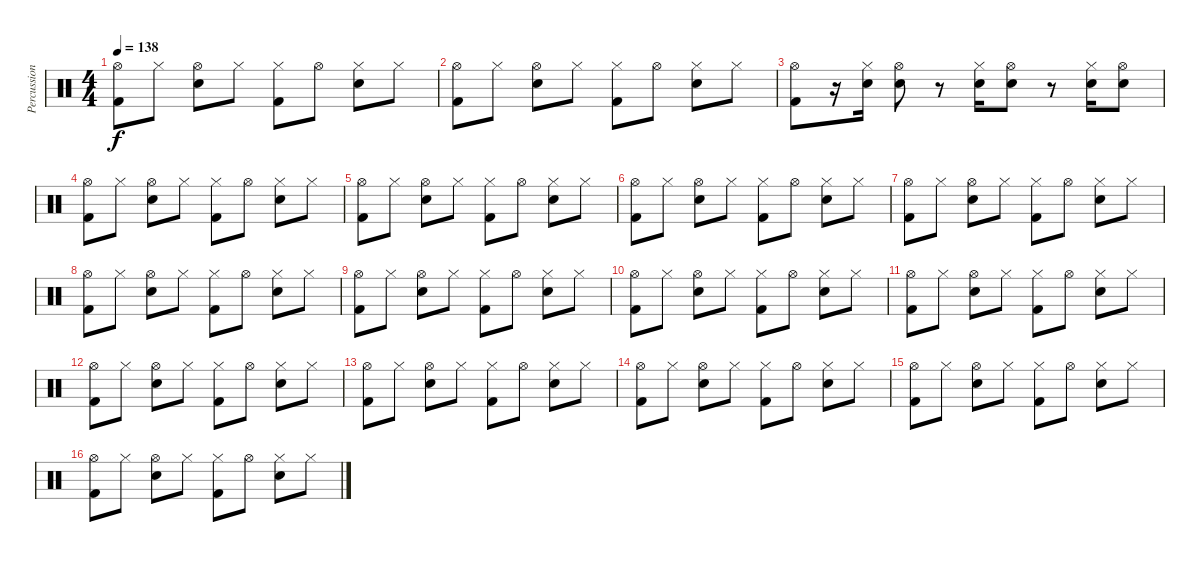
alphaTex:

\track ("Percussions" "Percussion") {instrument percussion}
\staff {score}
\articulation defaults
\ts (4 4)
\tempo 138
\clef neutral
\ks c
("Hi-Hat (open)" "Kick (hit) 2").8{dy f} "Hi-Hat (closed)".8 ("Hi-Hat (open)" "Snare (hit) 2").8 "Hi-Hat (closed)".8 ("Hi-Hat (closed)" "Kick (hit) 2").8 "Hi-Hat (open)".8 ("Hi-Hat (closed)" "Snare (hit) 2").8 "Hi-Hat (closed)".8 |
("Hi-Hat (open)" "Kick (hit) 2").8 "Hi-Hat (closed)".8 ("Hi-Hat (open)" "Snare (hit) 2").8 "Hi-Hat (closed)".8 ("Hi-Hat (closed)" "Kick (hit) 2").8 "Hi-Hat (open)".8 ("Hi-Hat (closed)" "Snare (hit) 2").8 "Hi-Hat (closed)".8 |
("Hi-Hat (open)" "Kick (hit) 2").8 r.16 ("Hi-Hat (closed)" "Snare (hit) 2").16 ("Hi-Hat (open)" "Snare (hit) 2").8 r.8 ("Hi-Hat (closed)" "Snare (hit) 2").16 ("Hi-Hat (open)" "Snare (hit) 2").8 r.8 ("Hi-Hat (closed)" "Snare (hit) 2").16 ("Hi-Hat (open)" "Snare (hit) 2").8 |
("Hi-Hat (open)" "Kick (hit) 2").8 "Hi-Hat (closed)".8 ("Hi-Hat (open)" "Snare (hit) 2").8 "Hi-Hat (closed)".8 ("Hi-Hat (closed)" "Kick (hit) 2").8 "Hi-Hat (open)".8 ("Hi-Hat (closed)" "Snare (hit) 2").8 "Hi-Hat (closed)".8 |
("Hi-Hat (open)" "Kick (hit) 2").8 "Hi-Hat (closed)".8 ("Hi-Hat (open)" "Snare (hit) 2").8 "Hi-Hat (closed)".8 ("Hi-Hat (closed)" "Kick (hit) 2").8 "Hi-Hat (open)".8 ("Hi-Hat (closed)" "Snare (hit) 2").8 "Hi-Hat (closed)".8 |
("Hi-Hat (open)" "Kick (hit) 2").8 "Hi-Hat (closed)".8 ("Hi-Hat (open)" "Snare (hit) 2").8 "Hi-Hat (closed)".8 ("Hi-Hat (closed)" "Kick (hit) 2").8 "Hi-Hat (open)".8 ("Hi-Hat (closed)" "Snare (hit) 2").8 "Hi-Hat (closed)".8 |
("Hi-Hat (open)" "Kick (hit) 2").8 "Hi-Hat (closed)".8 ("Hi-Hat (open)" "Snare (hit) 2").8 "Hi-Hat (closed)".8 ("Hi-Hat (closed)" "Kick (hit) 2").8 "Hi-Hat (open)".8 ("Hi-Hat (closed)" "Snare (hit) 2").8 "Hi-Hat (closed)".8 |
("Hi-Hat (open)" "Kick (hit) 2").8 "Hi-Hat (closed)".8 ("Hi-Hat (open)" "Snare (hit) 2").8 "Hi-Hat (closed)".8 ("Hi-Hat (closed)" "Kick (hit) 2").8 "Hi-Hat (open)".8 ("Hi-Hat (closed)" "Snare (hit) 2").8 "Hi-Hat (closed)".8 |
("Hi-Hat (open)" "Kick (hit) 2").8 "Hi-Hat (closed)".8 ("Hi-Hat (open)" "Snare (hit) 2").8 "Hi-Hat (closed)".8 ("Hi-Hat (closed)" "Kick (hit) 2").8 "Hi-Hat (open)".8 ("Hi-Hat (closed)" "Snare (hit) 2").8 "Hi-Hat (closed)".8 |
("Hi-Hat (open)" "Kick (hit) 2").8 "Hi-Hat (closed)".8 ("Hi-Hat (open)" "Snare (hit) 2").8 "Hi-Hat (closed)".8 ("Hi-Hat (closed)" "Kick (hit) 2").8 "Hi-Hat (open)".8 ("Hi-Hat (closed)" "Snare (hit) 2").8 "Hi-Hat (closed)".8 |
("Hi-Hat (open)" "Kick (hit) 2").8 "Hi-Hat (closed)".8 ("Hi-Hat (open)" "Snare (hit) 2").8 "Hi-Hat (closed)".8 ("Hi-Hat (closed)" "Kick (hit) 2").8 "Hi-Hat (open)".8 ("Hi-Hat (closed)" "Snare (hit) 2").8 "Hi-Hat (closed)".8 |
("Hi-Hat (open)" "Kick (hit) 2").8 "Hi-Hat (closed)".8 ("Hi-Hat (open)" "Snare (hit) 2").8 "Hi-Hat (closed)".8 ("Hi-Hat (closed)" "Kick (hit) 2").8 "Hi-Hat (open)".8 ("Hi-Hat (closed)" "Snare (hit) 2").8 "Hi-Hat (closed)".8 |
("Hi-Hat (open)" "Kick (hit) 2").8 "Hi-Hat (closed)".8 ("Hi-Hat (open)" "Snare (hit) 2").8 "Hi-Hat (closed)".8 ("Hi-Hat (closed)" "Kick (hit) 2").8 "Hi-Hat (open)".8 ("Hi-Hat (closed)" "Snare (hit) 2").8 "Hi-Hat (closed)".8 |
("Hi-Hat (open)" "Kick (hit) 2").8 "Hi-Hat (closed)".8 ("Hi-Hat (open)" "Snare (hit) 2").8 "Hi-Hat (closed)".8 ("Hi-Hat (closed)" "Kick (hit) 2").8 "Hi-Hat (open)".8 ("Hi-Hat (closed)" "Snare (hit) 2").8 "Hi-Hat (closed)".8 |
("Hi-Hat (open)" "Kick (hit) 2").8 "Hi-Hat (closed)".8 ("Hi-Hat (open)" "Snare (hit) 2").8 "Hi-Hat (closed)".8 ("Hi-Hat (closed)" "Kick (hit) 2").8 "Hi-Hat (open)".8 ("Hi-Hat (closed)" "Snare (hit) 2").8 "Hi-Hat (closed)".8 |
("Hi-Hat (open)" "Kick (hit) 2").8 "Hi-Hat (closed)".8 ("Hi-Hat (open)" "Snare (hit) 2").8 "Hi-Hat (closed)".8 ("Hi-Hat (closed)" "Kick (hit) 2").8 "Hi-Hat (open)".8 ("Hi-Hat (closed)" "Snare (hit) 2").8 "Hi-Hat (closed)".8
